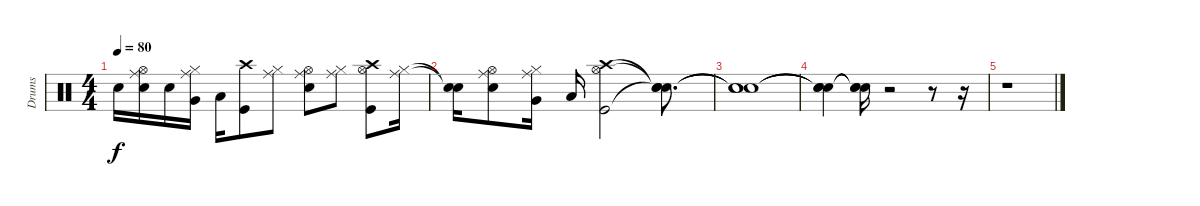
\track ("Drums" "Drums") {instrument percussion}
\staff {score}
\articulation defaults
\ts (4 4)
\tempo 80
\clef neutral
\ks c "Electric Snare (hit)".16{dy f}
("Electric Snare (hit)" "Hi-Hat (open)" "Ride (middle)").16 "Electric Snare (hit)".16 ("Very Low Tom (hit)" "Hi-Hat (closed)" "Ride (middle)").16 "Low Floor Tom (hit)".16 ("Kick (hit)" "Crash high (hit)").8 ("Hi-Hat (closed)" "Ride (middle)").8 ("Electric Snare (hit)" "Hi-Hat (open)" "Ride (middle)").8 ("Hi-Hat (closed)" "Ride (middle)").8 ("Kick (hit)" "Hi-Hat (open)" "Crash high (hit)").8 ("Hi-Hat (closed)" "Ride (middle)").16 |
("Snare (hit)"{t} "Snare (hit)"{t}).16 ("Electric Snare (hit)" "Hi-Hat (open)" "Ride (middle)").8 ("Very Low Tom (hit)" "Hi-Hat (closed)" "Ride (middle)").16 "Low Floor Tom (hit)".16 ("Kick (hit)" "Hi-Hat (open)" "Crash high (hit)").2 ("Snare (hit)"{t} "Snare (hit)"{t} "Snare (hit)"{t}).8{d} |
("Snare (hit)"{t} "Snare (hit)"{t} "Snare (hit)"{t}).1 |
("Snare (hit)"{t} "Snare (hit)"{t} "Snare (hit)"{t}).4 ("Snare (hit)"{t} "Snare (hit)"{t} "Snare (hit)"{t}).16 r.2 r.8 r.16 |
r.1
